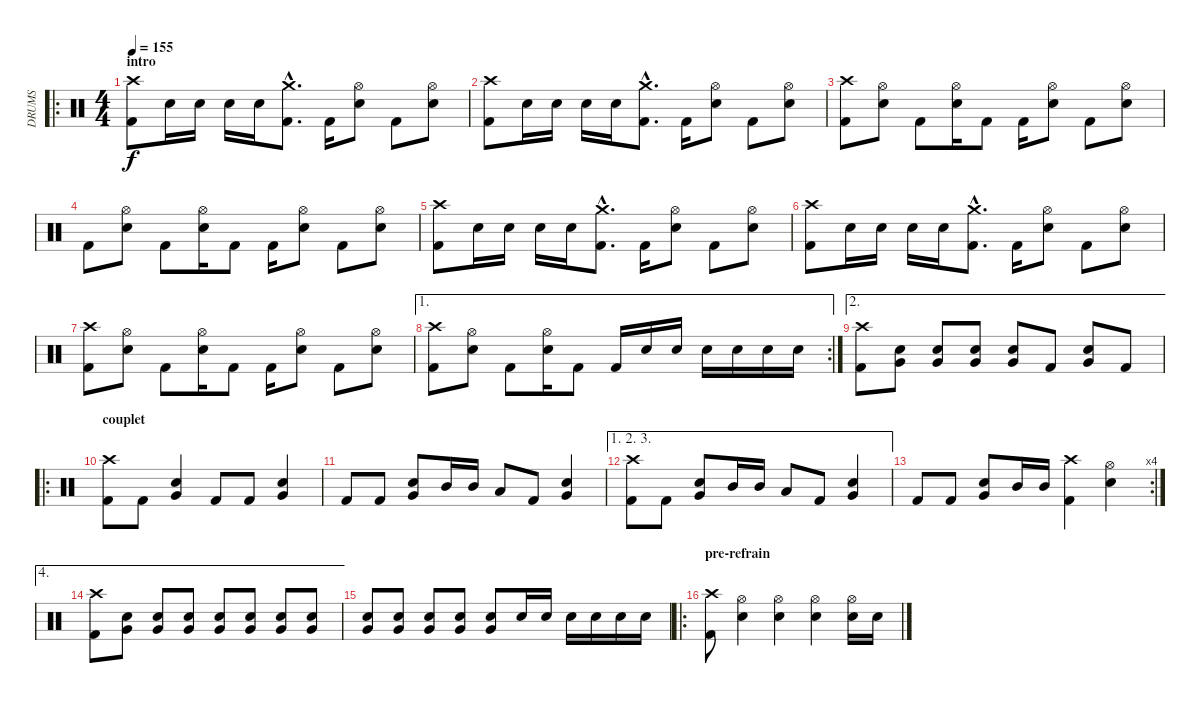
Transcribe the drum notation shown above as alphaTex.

\track ("DRUMS" "DRUMS") {instrument percussion}
\staff {score}
\articulation defaults
\ro
\ts (4 4)
\section ("" "intro")
\tempo 155
\clef neutral
\ks c
("Crash high (hit)" "Kick (hit) 2").8{dy f} "Electric Snare (hit)".16 "Electric Snare (hit)".16 "Electric Snare (hit)".16 "Electric Snare (hit)".16 ("Crash medium (hit)"{hac} "Kick (hit) 2"{hac}).8{d} "Kick (hit) 2".16 ("Hi-Hat (open)" "Electric Snare (hit)").8 "Kick (hit) 2".8 ("Hi-Hat (open)" "Electric Snare (hit)").8 |
("Crash high (hit)" "Kick (hit) 2").8 "Electric Snare (hit)".16 "Electric Snare (hit)".16 "Electric Snare (hit)".16 "Electric Snare (hit)".16 ("Crash medium (hit)"{hac} "Kick (hit) 2"{hac}).8{d} "Kick (hit) 2".16 ("Hi-Hat (open)" "Electric Snare (hit)").8 "Kick (hit) 2".8 ("Hi-Hat (open)" "Electric Snare (hit)").8 |
("Crash high (hit)" "Kick (hit) 2").8 ("Hi-Hat (open)" "Electric Snare (hit)").8 "Kick (hit) 2".8 ("Hi-Hat (open)" "Electric Snare (hit)").16 "Kick (hit) 2".8 "Kick (hit) 2".16 ("Hi-Hat (open)" "Electric Snare (hit)").8 "Kick (hit) 2".8 ("Hi-Hat (open)" "Electric Snare (hit)").8 |
"Kick (hit) 2".8 ("Hi-Hat (open)" "Electric Snare (hit)").8 "Kick (hit) 2".8 ("Hi-Hat (open)" "Electric Snare (hit)").16 "Kick (hit) 2".8 "Kick (hit) 2".16 ("Hi-Hat (open)" "Electric Snare (hit)").8 "Kick (hit) 2".8 ("Hi-Hat (open)" "Electric Snare (hit)").8 |
("Crash high (hit)" "Kick (hit) 2").8 "Electric Snare (hit)".16 "Electric Snare (hit)".16 "Electric Snare (hit)".16 "Electric Snare (hit)".16 ("Crash medium (hit)"{hac} "Kick (hit) 2"{hac}).8{d} "Kick (hit) 2".16 ("Hi-Hat (open)" "Electric Snare (hit)").8 "Kick (hit) 2".8 ("Hi-Hat (open)" "Electric Snare (hit)").8 |
("Crash high (hit)" "Kick (hit) 2").8 "Electric Snare (hit)".16 "Electric Snare (hit)".16 "Electric Snare (hit)".16 "Electric Snare (hit)".16 ("Crash medium (hit)"{hac} "Kick (hit) 2"{hac}).8{d} "Kick (hit) 2".16 ("Hi-Hat (open)" "Electric Snare (hit)").8 "Kick (hit) 2".8 ("Hi-Hat (open)" "Electric Snare (hit)").8 |
("Crash high (hit)" "Kick (hit) 2").8 ("Hi-Hat (open)" "Electric Snare (hit)").8 "Kick (hit) 2".8 ("Hi-Hat (open)" "Electric Snare (hit)").16 "Kick (hit) 2".8 "Kick (hit) 2".16 ("Hi-Hat (open)" "Electric Snare (hit)").8 "Kick (hit) 2".8 ("Hi-Hat (open)" "Electric Snare (hit)").8 |
\ae 1
\rc 2
("Crash high (hit)" "Kick (hit) 2").8 ("Hi-Hat (open)" "Electric Snare (hit)").8 "Kick (hit) 2".8 ("Hi-Hat (open)" "Electric Snare (hit)").16 "Kick (hit) 2".8 "Kick (hit) 2".16 "Electric Snare (hit)".16 "Electric Snare (hit)".16 "Electric Snare (hit)".16 "Electric Snare (hit)".16 "Electric Snare (hit)".16 "Electric Snare (hit)".16 |
\ae 2
("Crash high (hit)" "Kick (hit) 2").8 ("Very Low Tom (hit)" "Electric Snare (hit)").8 ("Very Low Tom (hit)" "Electric Snare (hit)").8 ("Very Low Tom (hit)" "Electric Snare (hit)").8 ("Very Low Tom (hit)" "Electric Snare (hit)").8 "Kick (hit) 2".8 ("Very Low Tom (hit)" "Electric Snare (hit)").8 "Kick (hit) 2".8 |
\ro
\section ("" "couplet")
("Crash high (hit)" "Kick (hit) 2").8 "Kick (hit) 2".8 ("Very Low Tom (hit)" "Electric Snare (hit)").4 "Kick (hit) 2".8 "Kick (hit) 2".8 ("Very Low Tom (hit)" "Electric Snare (hit)").4 |
"Kick (hit) 2".8 "Kick (hit) 2".8 ("Very Low Tom (hit)" "Electric Snare (hit)").8 "Mid Tom (hit)".16 "Mid Tom (hit)".16 "Low Tom (hit)".8 "Kick (hit) 2".8 ("Electric Snare (hit)" "Very Low Tom (hit)").4 |
\ae (1 2 3)
("Crash high (hit)" "Kick (hit) 2").8 "Kick (hit) 2".8 ("Very Low Tom (hit)" "Electric Snare (hit)").8 "Mid Tom (hit)".16 "Mid Tom (hit)".16 "Low Tom (hit)".8 "Kick (hit) 2".8 ("Very Low Tom (hit)" "Electric Snare (hit)").4 |
\rc 4 "Kick (hit) 2".8 "Kick (hit) 2".8
("Very Low Tom (hit)" "Electric Snare (hit)").8 "Mid Tom (hit)".16 "Mid Tom (hit)".16 ("Crash high (hit)" "Kick (hit) 2").4 ("Hi-Hat (open)" "Electric Snare (hit)").4 |
\ae 4
("Crash high (hit)" "Kick (hit) 2").8 ("Very Low Tom (hit)" "Electric Snare (hit)").8 ("Very Low Tom (hit)" "Electric Snare (hit)").8 ("Very Low Tom (hit)" "Electric Snare (hit)").8 ("Very Low Tom (hit)" "Electric Snare (hit)").8 ("Very Low Tom (hit)" "Electric Snare (hit)").8 ("Very Low Tom (hit)" "Electric Snare (hit)").8 ("Very Low Tom (hit)" "Electric Snare (hit)").8 |
("Very Low Tom (hit)" "Electric Snare (hit)").8 ("Very Low Tom (hit)" "Electric Snare (hit)").8 ("Very Low Tom (hit)" "Electric Snare (hit)").8 ("Very Low Tom (hit)" "Electric Snare (hit)").8 ("Very Low Tom (hit)" "Electric Snare (hit)").8 "Electric Snare (hit)".16 "Electric Snare (hit)".16 "Electric Snare (hit)".16 "Electric Snare (hit)".16 "Electric Snare (hit)".16 "Electric Snare (hit)".16 |
\ro
\section ("" "pre-refrain")
("Crash high (hit)" "Kick (hit) 2").8 ("Hi-Hat (open)" "Electric Snare (hit)").4 ("Hi-Hat (open)" "Electric Snare (hit)").4 ("Hi-Hat (open)" "Electric Snare (hit)").4 ("Hi-Hat (open)" "Electric Snare (hit)").16 "Electric Snare (hit)".16
